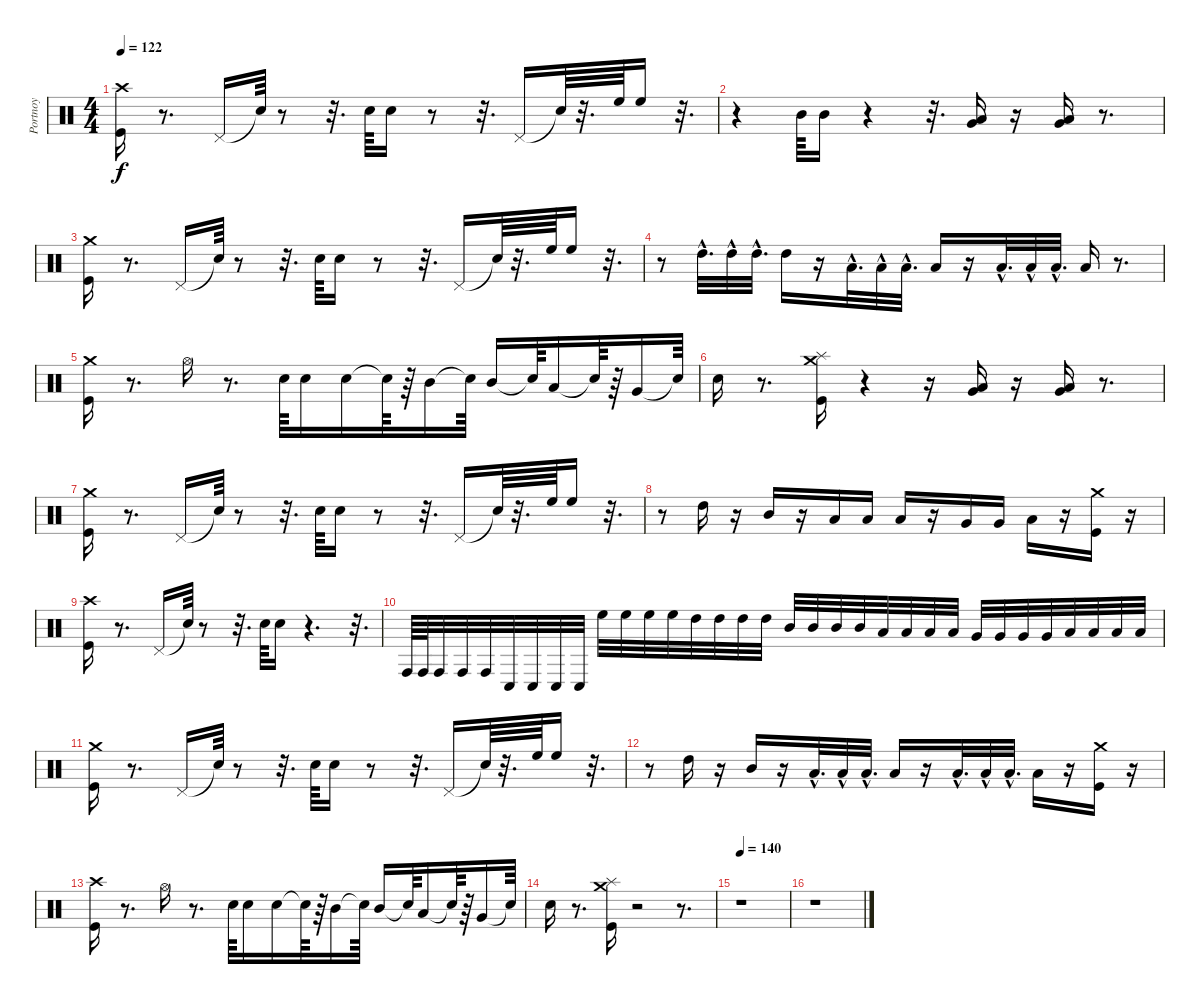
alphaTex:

\track ("Portnoy" "Portnoy") {instrument percussion}
\staff {score}
\articulation defaults
\ts (4 4)
\tempo 122
\clef neutral
\ks c
("Crash high (hit)" "Kick (hit)").16{dy f} r.8{d} "Pedal Hi-Hat (hit)".16 "Snare (hit)"{t}.64 r.8 r.32{d} "Metronome (bell)".64 "Metronome (bell)".16 r.8 r.32{d} "Pedal Hi-Hat (hit)".16 "Snare (hit)"{t}.64 r.32{d} "High Floor Tom (hit)".64 "High Floor Tom (hit)".16 r.32{d} |
r.4 "Mid Tom (hit)".64 "Mid Tom (hit)".16 r.4 r.32{d} ("Very Low Tom (hit)" "Low Tom (hit)").16 r.16 ("Low Floor Tom (hit)" "Very Low Tom (hit)").16 r.8{d} |
("Crash medium (hit)" "Kick (hit)").16 r.8{d} "Pedal Hi-Hat (hit)".16 "Snare (hit)"{t}.64 r.8 r.32{d} "Metronome (bell)".64 "Metronome (bell)".16 r.8 r.32{d} "Pedal Hi-Hat (hit)".16 "Snare (hit)"{t}.64 r.32{d} "High Floor Tom (hit)".64 "High Floor Tom (hit)".16 r.32{d} |
r.8 "High Tom (hit)"{hac}.32{d} "High Tom (hit)"{hac}.32 "High Tom (hit)"{hac}.32{d} "High Tom (hit)".16 r.16 "Low Tom (hit)"{hac}.32{d} "Low Tom (hit)"{hac}.32 "Low Tom (hit)"{hac}.32{d} "Low Tom (hit)".16 r.16 "Low Floor Tom (hit)"{hac}.32{d} "Low Floor Tom (hit)"{hac}.32 "Low Floor Tom (hit)"{hac}.32{d} "Low Floor Tom (hit)".16 r.8{d} |
("Crash medium (hit)" "Kick (hit)").16 r.8{d} "Hi-Hat (open)".16 r.8{d} "Metronome (bell)".64 "Metronome (bell)".16 "Metronome (bell)".16 "Snare (hit)"{t}.64 r.64 "Mid Tom (hit)".16 "Snare (hit)"{t}.64 "Mid Tom (hit)".16 "Snare (hit)"{t}.64 "Low Tom (hit)".16 "Snare (hit)"{t}.64 r.64 "Very Low Tom (hit)".16 "Snare (hit)"{t}.64 |
"Metronome (bell)".16 r.8{d} ("Splash (hit)" "Crash medium (hit)" "Kick (hit)").16 r.4 r.16 ("Low Floor Tom (hit)" "Very Low Tom (hit)").16 r.16 ("Low Floor Tom (hit)" "Very Low Tom (hit)").16 r.8{d} |
("Crash medium (hit)" "Kick (hit)").16 r.8{d} "Pedal Hi-Hat (hit)".16 "Snare (hit)"{t}.64 r.8 r.32{d} "Metronome (bell)".64 "Metronome (bell)".16 r.8 r.32{d} "Pedal Hi-Hat (hit)".16 "Snare (hit)"{t}.64 r.32{d} "High Floor Tom (hit)".64 "High Floor Tom (hit)".16 r.32{d} |
r.8 "High Tom (hit)".16 r.16 "Mid Tom (hit)".16 r.16 "Low Tom (hit)".16 "Low Tom (hit)".16 "Low Tom (hit)".16 r.16 "Very Low Tom (hit)".16 "Very Low Tom (hit)".16 "Low Floor Tom (hit)".16 r.16 ("Crash medium (hit)" "Kick (hit)").16 r.16 |
("Crash high (hit)" "Kick (hit)").16 r.8{d} "Pedal Hi-Hat (hit)".16 "Snare (hit)"{t}.64 r.8 r.32{d} "Metronome (bell)".64 "Metronome (bell)".16 r.4{d} r.32{d} |
"Conga high (hit)".64 "Conga high (hit)".64 "Conga high (hit)".32 "Conga high (hit)".32 "Conga high (hit)".32 "Conga low (hit)".32 "Conga low (hit)".32 "Conga low (hit)".32 "Conga low (hit)".32 "High Floor Tom (hit)".32 "High Floor Tom (hit)".32 "High Floor Tom (hit)".32 "High Floor Tom (hit)".32 "High Tom (hit)".32 "High Tom (hit)".32 "High Tom (hit)".32 "High Tom (hit)".32 "Mid Tom (hit)".32 "Mid Tom (hit)".32 "Mid Tom (hit)".32 "Mid Tom (hit)".32 "Low Tom (hit)".32 "Low Tom (hit)".32 "Low Tom (hit)".32 "Low Tom (hit)".32 "Very Low Tom (hit)".32 "Very Low Tom (hit)".32 "Very Low Tom (hit)".32 "Very Low Tom (hit)".32 "Low Floor Tom (hit)".32 "Low Floor Tom (hit)".32 "Low Floor Tom (hit)".32 "Low Floor Tom (hit)".32 |
("Crash medium (hit)" "Kick (hit)").16 r.8{d} "Pedal Hi-Hat (hit)".16 "Snare (hit)"{t}.64 r.8 r.32{d} "Metronome (bell)".64 "Metronome (bell)".16 r.8 r.32{d} "Pedal Hi-Hat (hit)".16 "Snare (hit)"{t}.64 r.32{d} "High Floor Tom (hit)".64 "High Floor Tom (hit)".16 r.32{d} |
r.8 "High Tom (hit)".16 r.16 "Mid Tom (hit)".16 r.16 "Low Tom (hit)"{hac}.32{d} "Low Tom (hit)"{hac}.32 "Low Tom (hit)"{hac}.32{d} "Low Tom (hit)".16 r.16 "Low Floor Tom (hit)"{hac}.32{d} "Low Floor Tom (hit)"{hac}.32 "Low Floor Tom (hit)"{hac}.32{d} "Low Floor Tom (hit)".16 r.16 ("Crash medium (hit)" "Kick (hit)").16 r.16 |
("Crash high (hit)" "Kick (hit)").16 r.8{d} "Hi-Hat (open)".16 r.8{d} "Metronome (bell)".64 "Metronome (bell)".16 "Metronome (bell)".16 "Snare (hit)"{t}.64 r.64 "Mid Tom (hit)".16 "Snare (hit)"{t}.64 "Mid Tom (hit)".16 "Snare (hit)"{t}.64 "Low Tom (hit)".16 "Snare (hit)"{t}.64 r.64 "Very Low Tom (hit)".16 "Snare (hit)"{t}.64 |
"Metronome (bell)".16 r.8{d} ("Splash (hit)" "Crash medium (hit)" "Kick (hit)").16 r.2 r.8{d} |
\tempo 140
r.1 |
r.1
